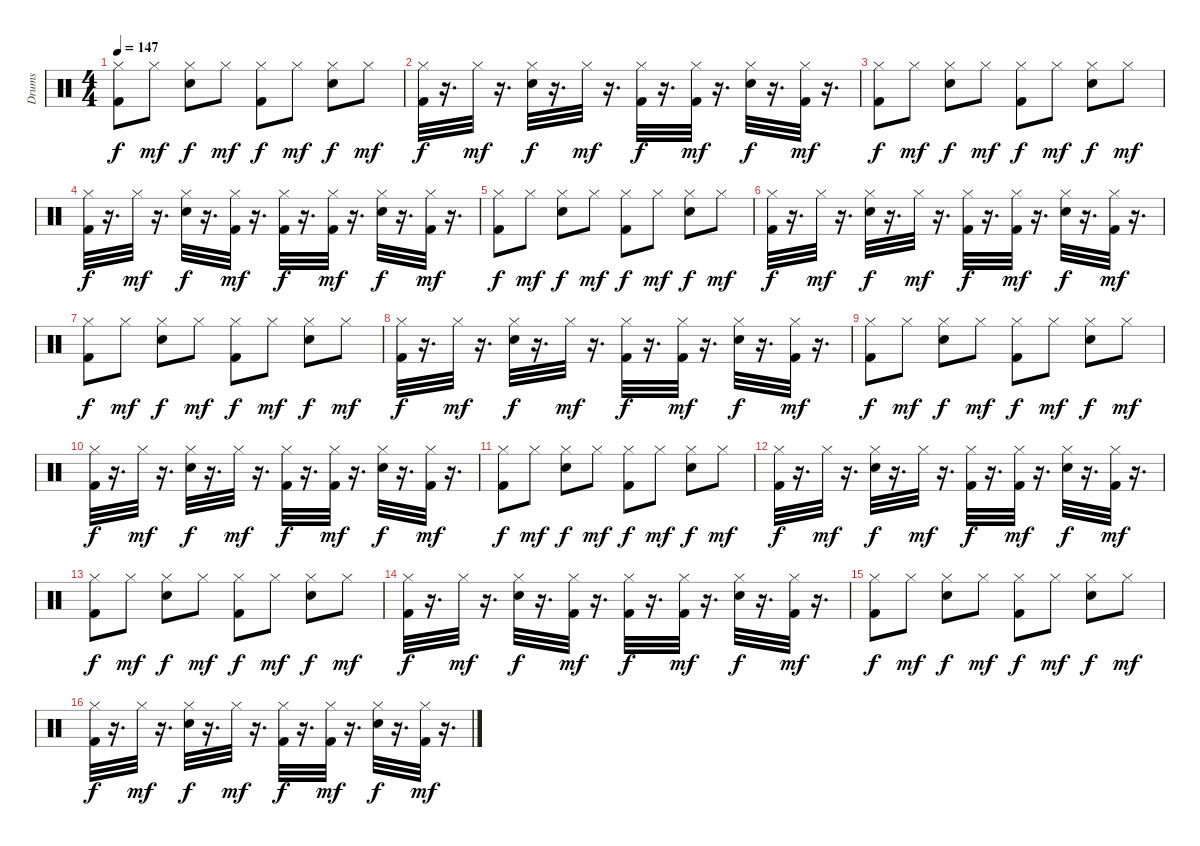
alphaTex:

\track ("Drums" "Drums") {instrument percussion}
\staff {score}
\articulation defaults
\ts (4 4)
\tempo 147
\clef neutral
\ks c
("Hi-Hat (closed)" "Kick (hit) 2").8{dy f} "Hi-Hat (closed)".8{dy mf} ("Hi-Hat (closed)" "Snare (hit) 2").8{dy f} "Hi-Hat (closed)".8{dy mf} ("Hi-Hat (closed)" "Kick (hit) 2").8{dy f} "Hi-Hat (closed)".8{dy mf} ("Hi-Hat (closed)" "Snare (hit) 2").8{dy f} "Hi-Hat (closed)".8{dy mf} |
("Kick (hit) 2" "Hi-Hat (closed)").32{dy f} r.16{d} "Hi-Hat (closed)".32{dy mf} r.16{d} ("Snare (hit) 2" "Hi-Hat (closed)").32{dy f} r.16{d} "Hi-Hat (closed)".32{dy mf} r.16{d} ("Kick (hit) 2" "Hi-Hat (closed)").32{dy f} r.16{d} ("Kick (hit) 2" "Hi-Hat (closed)").32{dy mf} r.16{d} ("Snare (hit) 2" "Hi-Hat (closed)").32{dy f} r.16{d} ("Kick (hit) 2" "Hi-Hat (closed)").32{dy mf} r.16{d} |
("Hi-Hat (closed)" "Kick (hit) 2").8{dy f} "Hi-Hat (closed)".8{dy mf} ("Hi-Hat (closed)" "Snare (hit) 2").8{dy f} "Hi-Hat (closed)".8{dy mf} ("Hi-Hat (closed)" "Kick (hit) 2").8{dy f} "Hi-Hat (closed)".8{dy mf} ("Hi-Hat (closed)" "Snare (hit) 2").8{dy f} "Hi-Hat (closed)".8{dy mf} |
("Kick (hit) 2" "Hi-Hat (closed)").32{dy f} r.16{d} "Hi-Hat (closed)".32{dy mf} r.16{d} ("Snare (hit) 2" "Hi-Hat (closed)").32{dy f} r.16{d} ("Kick (hit) 2" "Hi-Hat (closed)").32{dy mf} r.16{d} ("Kick (hit) 2" "Hi-Hat (closed)").32{dy f} r.16{d} ("Kick (hit) 2" "Hi-Hat (closed)").32{dy mf} r.16{d} ("Snare (hit) 2" "Hi-Hat (closed)").32{dy f} r.16{d} ("Kick (hit) 2" "Hi-Hat (closed)").32{dy mf} r.16{d} |
("Hi-Hat (closed)" "Kick (hit) 2").8{dy f} "Hi-Hat (closed)".8{dy mf} ("Hi-Hat (closed)" "Snare (hit) 2").8{dy f} "Hi-Hat (closed)".8{dy mf} ("Hi-Hat (closed)" "Kick (hit) 2").8{dy f} "Hi-Hat (closed)".8{dy mf} ("Hi-Hat (closed)" "Snare (hit) 2").8{dy f} "Hi-Hat (closed)".8{dy mf} |
("Kick (hit) 2" "Hi-Hat (closed)").32{dy f} r.16{d} "Hi-Hat (closed)".32{dy mf} r.16{d} ("Snare (hit) 2" "Hi-Hat (closed)").32{dy f} r.16{d} "Hi-Hat (closed)".32{dy mf} r.16{d} ("Kick (hit) 2" "Hi-Hat (closed)").32{dy f} r.16{d} ("Kick (hit) 2" "Hi-Hat (closed)").32{dy mf} r.16{d} ("Snare (hit) 2" "Hi-Hat (closed)").32{dy f} r.16{d} ("Kick (hit) 2" "Hi-Hat (closed)").32{dy mf} r.16{d} |
("Hi-Hat (closed)" "Kick (hit) 2").8{dy f} "Hi-Hat (closed)".8{dy mf} ("Hi-Hat (closed)" "Snare (hit) 2").8{dy f} "Hi-Hat (closed)".8{dy mf} ("Hi-Hat (closed)" "Kick (hit) 2").8{dy f} "Hi-Hat (closed)".8{dy mf} ("Hi-Hat (closed)" "Snare (hit) 2").8{dy f} "Hi-Hat (closed)".8{dy mf} |
("Kick (hit) 2" "Hi-Hat (closed)").32{dy f} r.16{d} "Hi-Hat (closed)".32{dy mf} r.16{d} ("Snare (hit) 2" "Hi-Hat (closed)").32{dy f} r.16{d} "Hi-Hat (closed)".32{dy mf} r.16{d} ("Kick (hit) 2" "Hi-Hat (closed)").32{dy f} r.16{d} ("Kick (hit) 2" "Hi-Hat (closed)").32{dy mf} r.16{d} ("Snare (hit) 2" "Hi-Hat (closed)").32{dy f} r.16{d} ("Kick (hit) 2" "Hi-Hat (closed)").32{dy mf} r.16{d} |
("Hi-Hat (closed)" "Kick (hit) 2").8{dy f} "Hi-Hat (closed)".8{dy mf} ("Hi-Hat (closed)" "Snare (hit) 2").8{dy f} "Hi-Hat (closed)".8{dy mf} ("Hi-Hat (closed)" "Kick (hit) 2").8{dy f} "Hi-Hat (closed)".8{dy mf} ("Hi-Hat (closed)" "Snare (hit) 2").8{dy f} "Hi-Hat (closed)".8{dy mf} |
("Kick (hit) 2" "Hi-Hat (closed)").32{dy f} r.16{d} "Hi-Hat (closed)".32{dy mf} r.16{d} ("Snare (hit) 2" "Hi-Hat (closed)").32{dy f} r.16{d} "Hi-Hat (closed)".32{dy mf} r.16{d} ("Kick (hit) 2" "Hi-Hat (closed)").32{dy f} r.16{d} ("Kick (hit) 2" "Hi-Hat (closed)").32{dy mf} r.16{d} ("Snare (hit) 2" "Hi-Hat (closed)").32{dy f} r.16{d} ("Kick (hit) 2" "Hi-Hat (closed)").32{dy mf} r.16{d} |
("Hi-Hat (closed)" "Kick (hit) 2").8{dy f} "Hi-Hat (closed)".8{dy mf} ("Hi-Hat (closed)" "Snare (hit) 2").8{dy f} "Hi-Hat (closed)".8{dy mf} ("Hi-Hat (closed)" "Kick (hit) 2").8{dy f} "Hi-Hat (closed)".8{dy mf} ("Hi-Hat (closed)" "Snare (hit) 2").8{dy f} "Hi-Hat (closed)".8{dy mf} |
("Kick (hit) 2" "Hi-Hat (closed)").32{dy f} r.16{d} "Hi-Hat (closed)".32{dy mf} r.16{d} ("Snare (hit) 2" "Hi-Hat (closed)").32{dy f} r.16{d} "Hi-Hat (closed)".32{dy mf} r.16{d} ("Kick (hit) 2" "Hi-Hat (closed)").32{dy f} r.16{d} ("Kick (hit) 2" "Hi-Hat (closed)").32{dy mf} r.16{d} ("Snare (hit) 2" "Hi-Hat (closed)").32{dy f} r.16{d} ("Kick (hit) 2" "Hi-Hat (closed)").32{dy mf} r.16{d} |
("Hi-Hat (closed)" "Kick (hit) 2").8{dy f} "Hi-Hat (closed)".8{dy mf} ("Hi-Hat (closed)" "Snare (hit) 2").8{dy f} "Hi-Hat (closed)".8{dy mf} ("Hi-Hat (closed)" "Kick (hit) 2").8{dy f} "Hi-Hat (closed)".8{dy mf} ("Hi-Hat (closed)" "Snare (hit) 2").8{dy f} "Hi-Hat (closed)".8{dy mf} |
("Kick (hit) 2" "Hi-Hat (closed)").32{dy f} r.16{d} "Hi-Hat (closed)".32{dy mf} r.16{d} ("Snare (hit) 2" "Hi-Hat (closed)").32{dy f} r.16{d} ("Kick (hit) 2" "Hi-Hat (closed)").32{dy mf} r.16{d} ("Kick (hit) 2" "Hi-Hat (closed)").32{dy f} r.16{d} ("Kick (hit) 2" "Hi-Hat (closed)").32{dy mf} r.16{d} ("Snare (hit) 2" "Hi-Hat (closed)").32{dy f} r.16{d} ("Kick (hit) 2" "Hi-Hat (closed)").32{dy mf} r.16{d} |
("Hi-Hat (closed)" "Kick (hit) 2").8{dy f} "Hi-Hat (closed)".8{dy mf} ("Hi-Hat (closed)" "Snare (hit) 2").8{dy f} "Hi-Hat (closed)".8{dy mf} ("Hi-Hat (closed)" "Kick (hit) 2").8{dy f} "Hi-Hat (closed)".8{dy mf} ("Hi-Hat (closed)" "Snare (hit) 2").8{dy f} "Hi-Hat (closed)".8{dy mf} |
("Kick (hit) 2" "Hi-Hat (closed)").32{dy f} r.16{d} "Hi-Hat (closed)".32{dy mf} r.16{d} ("Snare (hit) 2" "Hi-Hat (closed)").32{dy f} r.16{d} "Hi-Hat (closed)".32{dy mf} r.16{d} ("Kick (hit) 2" "Hi-Hat (closed)").32{dy f} r.16{d} ("Kick (hit) 2" "Hi-Hat (closed)").32{dy mf} r.16{d} ("Snare (hit) 2" "Hi-Hat (closed)").32{dy f} r.16{d} ("Kick (hit) 2" "Hi-Hat (closed)").32{dy mf} r.16{d}
